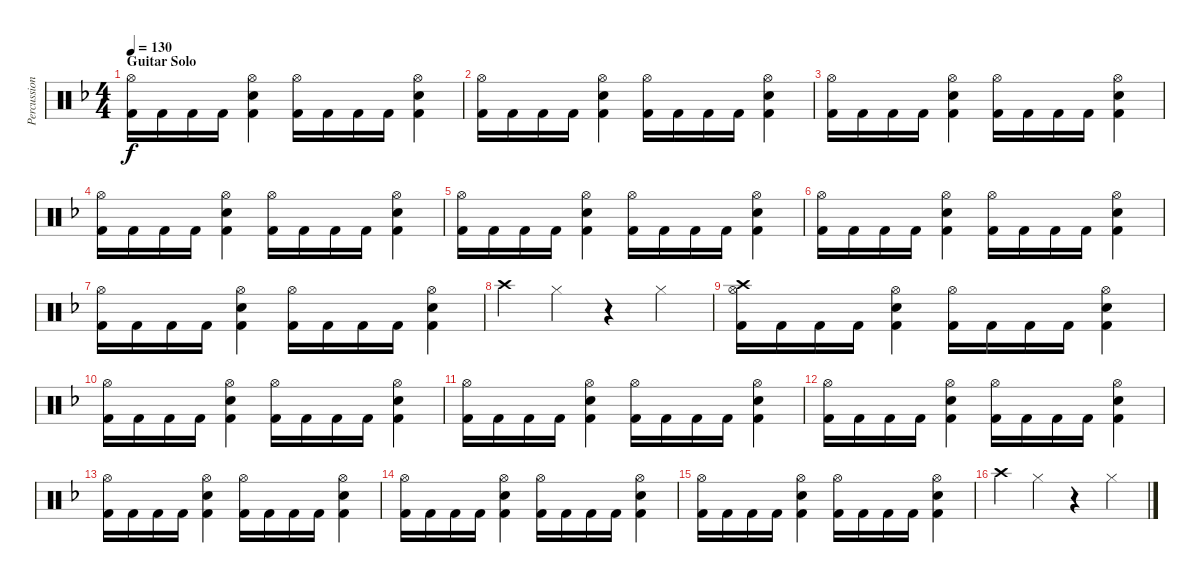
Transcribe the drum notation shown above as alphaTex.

\track ("Percussion" "Percussion") {instrument percussion}
\staff {score}
\articulation defaults
\ts (4 4)
\section ("" "Guitar Solo ")
\tempo 130
\clef neutral
\ks dminor
("Hi-Hat (open)" "Kick (hit) 2").16{dy f} "Kick (hit) 2".16 "Kick (hit) 2".16 "Kick (hit) 2".16 ("Hi-Hat (open)" "Snare (hit) 2" "Kick (hit) 2").4 ("Hi-Hat (open)" "Kick (hit) 2").16 "Kick (hit) 2".16 "Kick (hit) 2".16 "Kick (hit) 2".16 ("Hi-Hat (open)" "Snare (hit) 2" "Kick (hit) 2").4 |
("Hi-Hat (open)" "Kick (hit) 2").16 "Kick (hit) 2".16 "Kick (hit) 2".16 "Kick (hit) 2".16 ("Hi-Hat (open)" "Snare (hit) 2" "Kick (hit) 2").4 ("Hi-Hat (open)" "Kick (hit) 2").16 "Kick (hit) 2".16 "Kick (hit) 2".16 "Kick (hit) 2".16 ("Hi-Hat (open)" "Snare (hit) 2" "Kick (hit) 2").4 |
("Hi-Hat (open)" "Kick (hit) 2").16 "Kick (hit) 2".16 "Kick (hit) 2".16 "Kick (hit) 2".16 ("Hi-Hat (open)" "Snare (hit) 2" "Kick (hit) 2").4 ("Hi-Hat (open)" "Kick (hit) 2").16 "Kick (hit) 2".16 "Kick (hit) 2".16 "Kick (hit) 2".16 ("Hi-Hat (open)" "Snare (hit) 2" "Kick (hit) 2").4 |
("Hi-Hat (open)" "Kick (hit) 2").16 "Kick (hit) 2".16 "Kick (hit) 2".16 "Kick (hit) 2".16 ("Hi-Hat (open)" "Snare (hit) 2" "Kick (hit) 2").4 ("Hi-Hat (open)" "Kick (hit) 2").16 "Kick (hit) 2".16 "Kick (hit) 2".16 "Kick (hit) 2".16 ("Hi-Hat (open)" "Snare (hit) 2" "Kick (hit) 2").4 |
("Hi-Hat (open)" "Kick (hit) 2").16 "Kick (hit) 2".16 "Kick (hit) 2".16 "Kick (hit) 2".16 ("Hi-Hat (open)" "Snare (hit) 2" "Kick (hit) 2").4 ("Hi-Hat (open)" "Kick (hit) 2").16 "Kick (hit) 2".16 "Kick (hit) 2".16 "Kick (hit) 2".16 ("Hi-Hat (open)" "Snare (hit) 2" "Kick (hit) 2").4 |
("Hi-Hat (open)" "Kick (hit) 2").16 "Kick (hit) 2".16 "Kick (hit) 2".16 "Kick (hit) 2".16 ("Hi-Hat (open)" "Snare (hit) 2" "Kick (hit) 2").4 ("Hi-Hat (open)" "Kick (hit) 2").16 "Kick (hit) 2".16 "Kick (hit) 2".16 "Kick (hit) 2".16 ("Hi-Hat (open)" "Snare (hit) 2" "Kick (hit) 2").4 |
("Hi-Hat (open)" "Kick (hit) 2").16 "Kick (hit) 2".16 "Kick (hit) 2".16 "Kick (hit) 2".16 ("Hi-Hat (open)" "Snare (hit) 2" "Kick (hit) 2").4 ("Hi-Hat (open)" "Kick (hit) 2").16 "Kick (hit) 2".16 "Kick (hit) 2".16 "Kick (hit) 2".16 ("Hi-Hat (open)" "Snare (hit) 2" "Kick (hit) 2").4 |
"Crash high (hit)".4 "Hi-Hat (closed)".4 r.4 "Hi-Hat (closed)".4 |
("Crash high (hit)" "Hi-Hat (open)" "Kick (hit) 2").16 "Kick (hit) 2".16 "Kick (hit) 2".16 "Kick (hit) 2".16 ("Hi-Hat (open)" "Snare (hit) 2" "Kick (hit) 2").4 ("Hi-Hat (open)" "Kick (hit) 2").16 "Kick (hit) 2".16 "Kick (hit) 2".16 "Kick (hit) 2".16 ("Hi-Hat (open)" "Snare (hit) 2" "Kick (hit) 2").4 |
("Hi-Hat (open)" "Kick (hit) 2").16 "Kick (hit) 2".16 "Kick (hit) 2".16 "Kick (hit) 2".16 ("Hi-Hat (open)" "Snare (hit) 2" "Kick (hit) 2").4 ("Hi-Hat (open)" "Kick (hit) 2").16 "Kick (hit) 2".16 "Kick (hit) 2".16 "Kick (hit) 2".16 ("Hi-Hat (open)" "Snare (hit) 2" "Kick (hit) 2").4 |
("Hi-Hat (open)" "Kick (hit) 2").16 "Kick (hit) 2".16 "Kick (hit) 2".16 "Kick (hit) 2".16 ("Hi-Hat (open)" "Snare (hit) 2" "Kick (hit) 2").4 ("Hi-Hat (open)" "Kick (hit) 2").16 "Kick (hit) 2".16 "Kick (hit) 2".16 "Kick (hit) 2".16 ("Hi-Hat (open)" "Snare (hit) 2" "Kick (hit) 2").4 |
("Hi-Hat (open)" "Kick (hit) 2").16 "Kick (hit) 2".16 "Kick (hit) 2".16 "Kick (hit) 2".16 ("Hi-Hat (open)" "Snare (hit) 2" "Kick (hit) 2").4 ("Hi-Hat (open)" "Kick (hit) 2").16 "Kick (hit) 2".16 "Kick (hit) 2".16 "Kick (hit) 2".16 ("Hi-Hat (open)" "Snare (hit) 2" "Kick (hit) 2").4 |
("Hi-Hat (open)" "Kick (hit) 2").16 "Kick (hit) 2".16 "Kick (hit) 2".16 "Kick (hit) 2".16 ("Hi-Hat (open)" "Snare (hit) 2" "Kick (hit) 2").4 ("Hi-Hat (open)" "Kick (hit) 2").16 "Kick (hit) 2".16 "Kick (hit) 2".16 "Kick (hit) 2".16 ("Hi-Hat (open)" "Snare (hit) 2" "Kick (hit) 2").4 |
("Hi-Hat (open)" "Kick (hit) 2").16 "Kick (hit) 2".16 "Kick (hit) 2".16 "Kick (hit) 2".16 ("Hi-Hat (open)" "Snare (hit) 2" "Kick (hit) 2").4 ("Hi-Hat (open)" "Kick (hit) 2").16 "Kick (hit) 2".16 "Kick (hit) 2".16 "Kick (hit) 2".16 ("Hi-Hat (open)" "Snare (hit) 2" "Kick (hit) 2").4 |
("Hi-Hat (open)" "Kick (hit) 2").16 "Kick (hit) 2".16 "Kick (hit) 2".16 "Kick (hit) 2".16 ("Hi-Hat (open)" "Snare (hit) 2" "Kick (hit) 2").4 ("Hi-Hat (open)" "Kick (hit) 2").16 "Kick (hit) 2".16 "Kick (hit) 2".16 "Kick (hit) 2".16 ("Hi-Hat (open)" "Snare (hit) 2" "Kick (hit) 2").4 |
"Crash high (hit)".4 "Hi-Hat (closed)".4 r.4 "Hi-Hat (closed)".4
